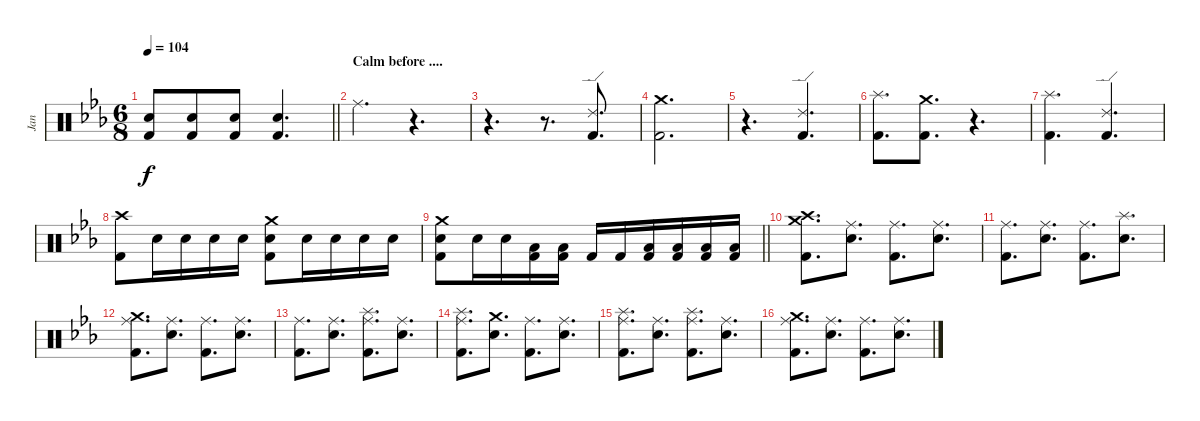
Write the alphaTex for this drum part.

\track ("Jan" "Jan") {instrument percussion}
\staff {score}
\articulation defaults
\ts (6 8)
\tempo 104
\clef neutral
\barLineRight lightlight
\ks eb
("Snare (hit) 2" "Kick (hit) 2").8{dy f} ("Snare (hit) 2" "Kick (hit) 2").8 ("Snare (hit) 2" "Kick (hit) 2").8 ("Snare (hit) 2" "Kick (hit) 2").4{d} |
\section ("" "Calm before ....")
"Ride (middle)".4{d} r.4{d} |
r.4{d} r.8{d} ("Ride (edge) 2" "Kick (hit) 2").8{d} |
("Crash medium (hit)" "Kick (hit) 2").2{d} |
r.4{d} ("Ride (edge) 2" "Kick (hit) 2").4{d} |
("Splash (hit)" "Kick (hit) 2").8{d} ("Crash medium (hit)" "Kick (hit) 2").8{d} r.4{d} |
("Splash (hit)" "Kick (hit) 2").4{d} ("Ride (edge) 2" "Kick (hit) 2").4{d} |
("Crash high (hit)" "Kick (hit) 2").8 "Snare (hit) 2".16 "Snare (hit) 2".16 "Snare (hit) 2".16 "Snare (hit) 2".16 ("Crash medium (hit)" "Snare (hit) 2" "Kick (hit) 2").8 "Snare (hit) 2".16 "Snare (hit) 2".16 "Snare (hit) 2".16 "Snare (hit) 2".16 |
\barLineRight lightlight
("Crash medium (hit)" "Snare (hit) 2" "Kick (hit) 2").8 "Snare (hit) 2".16 "Snare (hit) 2".16 ("Low Tom (hit)" "Kick (hit) 2").16 ("Low Tom (hit)" "Kick (hit) 2").16 "Kick (hit) 2".16 "Kick (hit) 2".16 ("Low Tom (hit)" "Kick (hit) 2").16 ("Low Tom (hit)" "Kick (hit) 2").16 ("Low Tom (hit)" "Kick (hit) 2").16 ("Low Tom (hit)" "Kick (hit) 2").16 |
("Crash medium (hit)" "Crash high (hit)" "Kick (hit) 2").8{d} ("Snare (hit) 2" "Ride (middle)").8{d} ("Ride (middle)" "Kick (hit) 2").8{d} ("Snare (hit) 2" "Ride (middle)").8{d} |
("Ride (middle)" "Kick (hit) 2").8{d} ("Snare (hit) 2" "Ride (middle)").8{d} ("Ride (middle)" "Kick (hit) 2").8{d} ("Splash (hit)" "Snare (hit) 2").8{d} |
("Crash medium (hit)" "Ride (middle)" "Kick (hit) 2").8{d} ("Snare (hit) 2" "Ride (middle)").8{d} ("Ride (middle)" "Kick (hit) 2").8{d} ("Snare (hit) 2" "Ride (middle)").8{d} |
("Ride (middle)" "Kick (hit) 2").8{d} ("Snare (hit) 2" "Ride (middle)").8{d} ("Splash (hit)" "Ride (middle)" "Kick (hit) 2").8{d} ("Snare (hit) 2" "Ride (middle)").8{d} |
("Splash (hit)" "Ride (middle)" "Kick (hit) 2").8{d} ("Crash medium (hit)" "Snare (hit) 2").8{d} ("Ride (middle)" "Kick (hit) 2").8{d} ("Snare (hit) 2" "Ride (middle)").8{d} |
("Splash (hit)" "Ride (middle)" "Kick (hit) 2").8{d} ("Snare (hit) 2" "Ride (middle)").8{d} ("Splash (hit)" "Ride (middle)" "Kick (hit) 2").8{d} ("Snare (hit) 2" "Ride (middle)").8{d} |
("Crash medium (hit)" "Ride (middle)" "Kick (hit) 2").8{d} ("Snare (hit) 2" "Ride (middle)").8{d} ("Ride (middle)" "Kick (hit) 2").8{d} ("Snare (hit) 2" "Ride (middle)").8{d}
